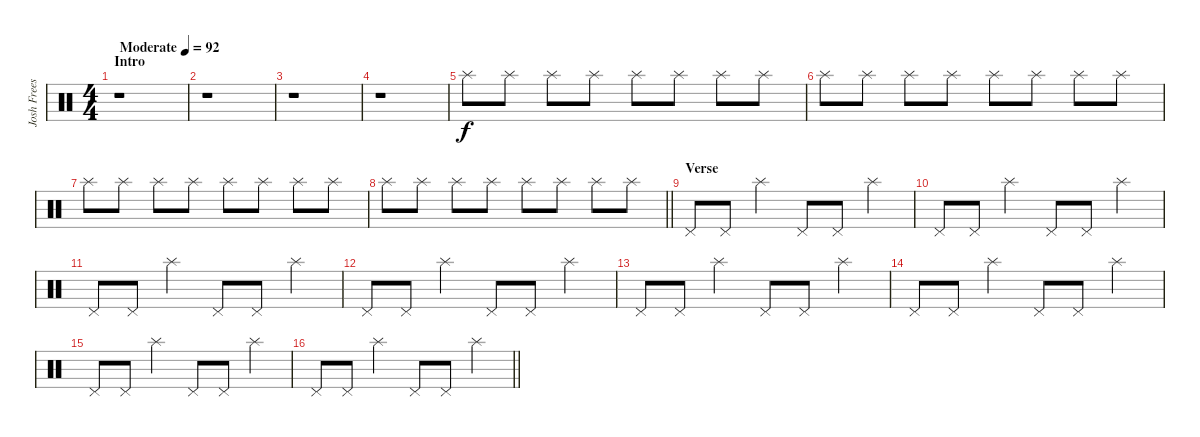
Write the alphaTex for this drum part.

\track ("Josh Freese (Studio Drummer)" "Josh Frees") {instrument percussion}
\staff {score}
\articulation defaults
\ts (4 4)
\section ("" "Intro")
\tempo (92 "Moderate")
\clef neutral
\ks c
r.1{dy f} |
r.1 |
r.1 |
r.1 |
"Splash (hit)".8 "Splash (hit)".8 "Splash (hit)".8 "Splash (hit)".8 "Splash (hit)".8 "Splash (hit)".8 "Splash (hit)".8 "Splash (hit)".8 |
"Splash (hit)".8 "Splash (hit)".8 "Splash (hit)".8 "Splash (hit)".8 "Splash (hit)".8 "Splash (hit)".8 "Splash (hit)".8 "Splash (hit)".8 |
"Splash (hit)".8 "Splash (hit)".8 "Splash (hit)".8 "Splash (hit)".8 "Splash (hit)".8 "Splash (hit)".8 "Splash (hit)".8 "Splash (hit)".8 |
\barLineRight lightlight "Splash (hit)".8 "Splash (hit)".8 "Splash (hit)".8 "Splash (hit)".8 "Splash (hit)".8 "Splash (hit)".8 "Splash (hit)".8 "Splash (hit)".8
|
\section ("" "Verse")
"Pedal Hi-Hat (hit)".8 "Pedal Hi-Hat (hit)".8 "Splash (hit)".4 "Pedal Hi-Hat (hit)".8 "Pedal Hi-Hat (hit)".8 "Splash (hit)".4 |
"Pedal Hi-Hat (hit)".8 "Pedal Hi-Hat (hit)".8 "Splash (hit)".4 "Pedal Hi-Hat (hit)".8 "Pedal Hi-Hat (hit)".8 "Splash (hit)".4 |
"Pedal Hi-Hat (hit)".8 "Pedal Hi-Hat (hit)".8 "Splash (hit)".4 "Pedal Hi-Hat (hit)".8 "Pedal Hi-Hat (hit)".8 "Splash (hit)".4 |
"Pedal Hi-Hat (hit)".8 "Pedal Hi-Hat (hit)".8 "Splash (hit)".4 "Pedal Hi-Hat (hit)".8 "Pedal Hi-Hat (hit)".8 "Splash (hit)".4 |
"Pedal Hi-Hat (hit)".8 "Pedal Hi-Hat (hit)".8 "Splash (hit)".4 "Pedal Hi-Hat (hit)".8 "Pedal Hi-Hat (hit)".8 "Splash (hit)".4 |
"Pedal Hi-Hat (hit)".8 "Pedal Hi-Hat (hit)".8 "Splash (hit)".4 "Pedal Hi-Hat (hit)".8 "Pedal Hi-Hat (hit)".8 "Splash (hit)".4 |
"Pedal Hi-Hat (hit)".8 "Pedal Hi-Hat (hit)".8 "Splash (hit)".4 "Pedal Hi-Hat (hit)".8 "Pedal Hi-Hat (hit)".8 "Splash (hit)".4 |
\barLineRight lightlight "Pedal Hi-Hat (hit)".8 "Pedal Hi-Hat (hit)".8 "Splash (hit)".4 "Pedal Hi-Hat (hit)".8 "Pedal Hi-Hat (hit)".8 "Splash (hit)".4
